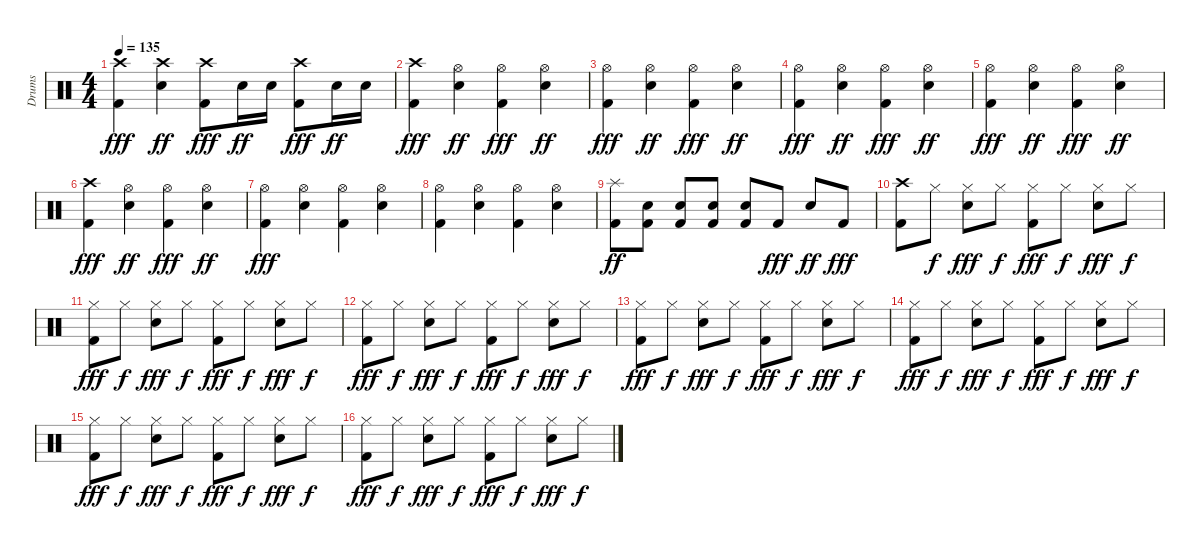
\track ("Drums" "Drums") {instrument percussion}
\staff {score}
\articulation defaults
\ts (4 4)
\tempo 135
\clef neutral
\ks c
("Crash high (hit)" "Kick (hit) 2").4{dy fff} ("Crash high (hit)" "Snare (hit) 2").4{dy ff} ("Crash high (hit)" "Kick (hit) 2").8{dy fff} "Snare (hit) 2".16{dy ff} "Snare (hit) 2".16 ("Crash high (hit)" "Kick (hit) 2").8{dy fff} "Snare (hit) 2".16{dy ff} "Snare (hit) 2".16 |
("Crash high (hit)" "Kick (hit) 2").4{dy fff} ("Hi-Hat (open)" "Snare (hit) 2").4{dy ff} ("Hi-Hat (open)" "Kick (hit) 2").4{dy fff} ("Hi-Hat (open)" "Snare (hit) 2").4{dy ff} |
("Hi-Hat (open)" "Kick (hit) 2").4{dy fff} ("Hi-Hat (open)" "Snare (hit) 2").4{dy ff} ("Hi-Hat (open)" "Kick (hit) 2").4{dy fff} ("Hi-Hat (open)" "Snare (hit) 2").4{dy ff} |
("Hi-Hat (open)" "Kick (hit) 2").4{dy fff} ("Hi-Hat (open)" "Snare (hit) 2").4{dy ff} ("Hi-Hat (open)" "Kick (hit) 2").4{dy fff} ("Hi-Hat (open)" "Snare (hit) 2").4{dy ff} |
("Hi-Hat (open)" "Kick (hit) 2").4{dy fff} ("Hi-Hat (open)" "Snare (hit) 2").4{dy ff} ("Hi-Hat (open)" "Kick (hit) 2").4{dy fff} ("Hi-Hat (open)" "Snare (hit) 2").4{dy ff} |
("Crash high (hit)" "Kick (hit) 2").4{dy fff} ("Hi-Hat (open)" "Snare (hit) 2").4{dy ff} ("Hi-Hat (open)" "Kick (hit) 2").4{dy fff} ("Hi-Hat (open)" "Snare (hit) 2").4{dy ff} |
("Hi-Hat (open)" "Kick (hit) 2").4{dy fff} ("Hi-Hat (open)" "Snare (hit) 2").4 ("Hi-Hat (open)" "Kick (hit) 2").4 ("Hi-Hat (open)" "Snare (hit) 2").4 |
("Hi-Hat (open)" "Kick (hit) 2").4 ("Hi-Hat (open)" "Snare (hit) 2").4 ("Hi-Hat (open)" "Kick (hit) 2").4 ("Hi-Hat (open)" "Snare (hit) 2").4 |
("Splash (hit)" "Kick (hit) 2").8{dy ff} ("Snare (hit) 2" "Kick (hit) 2").8 ("Snare (hit) 2" "Kick (hit) 2").8 ("Snare (hit) 2" "Kick (hit) 2").8 ("Snare (hit) 2" "Kick (hit) 2").8 "Kick (hit) 2".8{dy fff} "Snare (hit) 2".8{dy ff} "Kick (hit) 2".8{dy fff} |
("Crash high (hit)" "Kick (hit) 2").8 "Hi-Hat (closed)".8{dy f} ("Hi-Hat (closed)" "Snare (hit) 2").8{dy fff} "Hi-Hat (closed)".8{dy f} ("Hi-Hat (closed)" "Kick (hit) 2").8{dy fff} "Hi-Hat (closed)".8{dy f} ("Hi-Hat (closed)" "Snare (hit) 2").8{dy fff} "Hi-Hat (closed)".8{dy f} |
("Hi-Hat (closed)" "Kick (hit) 2").8{dy fff} "Hi-Hat (closed)".8{dy f} ("Hi-Hat (closed)" "Snare (hit) 2").8{dy fff} "Hi-Hat (closed)".8{dy f} ("Hi-Hat (closed)" "Kick (hit) 2").8{dy fff} "Hi-Hat (closed)".8{dy f} ("Hi-Hat (closed)" "Snare (hit) 2").8{dy fff} "Hi-Hat (closed)".8{dy f} |
("Hi-Hat (closed)" "Kick (hit) 2").8{dy fff} "Hi-Hat (closed)".8{dy f} ("Hi-Hat (closed)" "Snare (hit) 2").8{dy fff} "Hi-Hat (closed)".8{dy f} ("Hi-Hat (closed)" "Kick (hit) 2").8{dy fff} "Hi-Hat (closed)".8{dy f} ("Hi-Hat (closed)" "Snare (hit) 2").8{dy fff} "Hi-Hat (closed)".8{dy f} |
("Hi-Hat (closed)" "Kick (hit) 2").8{dy fff} "Hi-Hat (closed)".8{dy f} ("Hi-Hat (closed)" "Snare (hit) 2").8{dy fff} "Hi-Hat (closed)".8{dy f} ("Hi-Hat (closed)" "Kick (hit) 2").8{dy fff} "Hi-Hat (closed)".8{dy f} ("Hi-Hat (closed)" "Snare (hit) 2").8{dy fff} "Hi-Hat (closed)".8{dy f} |
("Hi-Hat (closed)" "Kick (hit) 2").8{dy fff} "Hi-Hat (closed)".8{dy f} ("Hi-Hat (closed)" "Snare (hit) 2").8{dy fff} "Hi-Hat (closed)".8{dy f} ("Hi-Hat (closed)" "Kick (hit) 2").8{dy fff} "Hi-Hat (closed)".8{dy f} ("Hi-Hat (closed)" "Snare (hit) 2").8{dy fff} "Hi-Hat (closed)".8{dy f} |
("Hi-Hat (closed)" "Kick (hit) 2").8{dy fff} "Hi-Hat (closed)".8{dy f} ("Hi-Hat (closed)" "Snare (hit) 2").8{dy fff} "Hi-Hat (closed)".8{dy f} ("Hi-Hat (closed)" "Kick (hit) 2").8{dy fff} "Hi-Hat (closed)".8{dy f} ("Hi-Hat (closed)" "Snare (hit) 2").8{dy fff} "Hi-Hat (closed)".8{dy f} |
("Hi-Hat (closed)" "Kick (hit) 2").8{dy fff} "Hi-Hat (closed)".8{dy f} ("Hi-Hat (closed)" "Snare (hit) 2").8{dy fff} "Hi-Hat (closed)".8{dy f} ("Hi-Hat (closed)" "Kick (hit) 2").8{dy fff} "Hi-Hat (closed)".8{dy f} ("Hi-Hat (closed)" "Snare (hit) 2").8{dy fff} "Hi-Hat (closed)".8{dy f}
